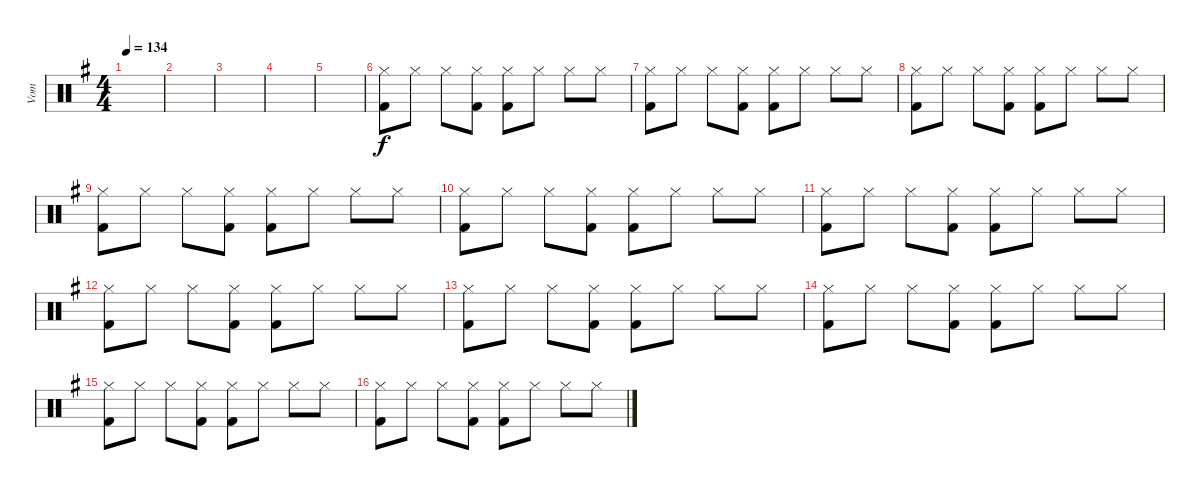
\track ("Vom" "Vom") {instrument percussion}
\staff {score}
\articulation defaults
\ts (4 4)
\tempo 134
\clef neutral
\ks g
|
|
|
|
|
("Hi-Hat (closed)" "Kick (hit) 2").8 "Hi-Hat (closed)".8 "Hi-Hat (closed)".8 ("Hi-Hat (closed)" "Kick (hit) 2").8 ("Hi-Hat (closed)" "Kick (hit) 2").8 "Hi-Hat (closed)".8 "Hi-Hat (closed)".8 "Hi-Hat (closed)".8 |
("Hi-Hat (closed)" "Kick (hit) 2").8 "Hi-Hat (closed)".8 "Hi-Hat (closed)".8 ("Hi-Hat (closed)" "Kick (hit) 2").8 ("Hi-Hat (closed)" "Kick (hit) 2").8 "Hi-Hat (closed)".8 "Hi-Hat (closed)".8 "Hi-Hat (closed)".8 |
("Hi-Hat (closed)" "Kick (hit) 2").8 "Hi-Hat (closed)".8 "Hi-Hat (closed)".8 ("Hi-Hat (closed)" "Kick (hit) 2").8 ("Hi-Hat (closed)" "Kick (hit) 2").8 "Hi-Hat (closed)".8 "Hi-Hat (closed)".8 "Hi-Hat (closed)".8 |
("Hi-Hat (closed)" "Kick (hit) 2").8 "Hi-Hat (closed)".8 "Hi-Hat (closed)".8 ("Hi-Hat (closed)" "Kick (hit) 2").8 ("Hi-Hat (closed)" "Kick (hit) 2").8 "Hi-Hat (closed)".8 "Hi-Hat (closed)".8 "Hi-Hat (closed)".8 |
("Hi-Hat (closed)" "Kick (hit) 2").8 "Hi-Hat (closed)".8 "Hi-Hat (closed)".8 ("Hi-Hat (closed)" "Kick (hit) 2").8 ("Hi-Hat (closed)" "Kick (hit) 2").8 "Hi-Hat (closed)".8 "Hi-Hat (closed)".8 "Hi-Hat (closed)".8 |
("Hi-Hat (closed)" "Kick (hit) 2").8 "Hi-Hat (closed)".8 "Hi-Hat (closed)".8 ("Hi-Hat (closed)" "Kick (hit) 2").8 ("Hi-Hat (closed)" "Kick (hit) 2").8 "Hi-Hat (closed)".8 "Hi-Hat (closed)".8 "Hi-Hat (closed)".8 |
("Hi-Hat (closed)" "Kick (hit) 2").8 "Hi-Hat (closed)".8 "Hi-Hat (closed)".8 ("Hi-Hat (closed)" "Kick (hit) 2").8 ("Hi-Hat (closed)" "Kick (hit) 2").8 "Hi-Hat (closed)".8 "Hi-Hat (closed)".8 "Hi-Hat (closed)".8 |
("Hi-Hat (closed)" "Kick (hit) 2").8 "Hi-Hat (closed)".8 "Hi-Hat (closed)".8 ("Hi-Hat (closed)" "Kick (hit) 2").8 ("Hi-Hat (closed)" "Kick (hit) 2").8 "Hi-Hat (closed)".8 "Hi-Hat (closed)".8 "Hi-Hat (closed)".8 |
("Hi-Hat (closed)" "Kick (hit) 2").8 "Hi-Hat (closed)".8 "Hi-Hat (closed)".8 ("Hi-Hat (closed)" "Kick (hit) 2").8 ("Hi-Hat (closed)" "Kick (hit) 2").8 "Hi-Hat (closed)".8 "Hi-Hat (closed)".8 "Hi-Hat (closed)".8 |
("Hi-Hat (closed)" "Kick (hit) 2").8 "Hi-Hat (closed)".8 "Hi-Hat (closed)".8 ("Hi-Hat (closed)" "Kick (hit) 2").8 ("Hi-Hat (closed)" "Kick (hit) 2").8 "Hi-Hat (closed)".8 "Hi-Hat (closed)".8 "Hi-Hat (closed)".8 |
("Hi-Hat (closed)" "Kick (hit) 2").8 "Hi-Hat (closed)".8 "Hi-Hat (closed)".8 ("Hi-Hat (closed)" "Kick (hit) 2").8 ("Hi-Hat (closed)" "Kick (hit) 2").8 "Hi-Hat (closed)".8 "Hi-Hat (closed)".8 "Hi-Hat (closed)".8
